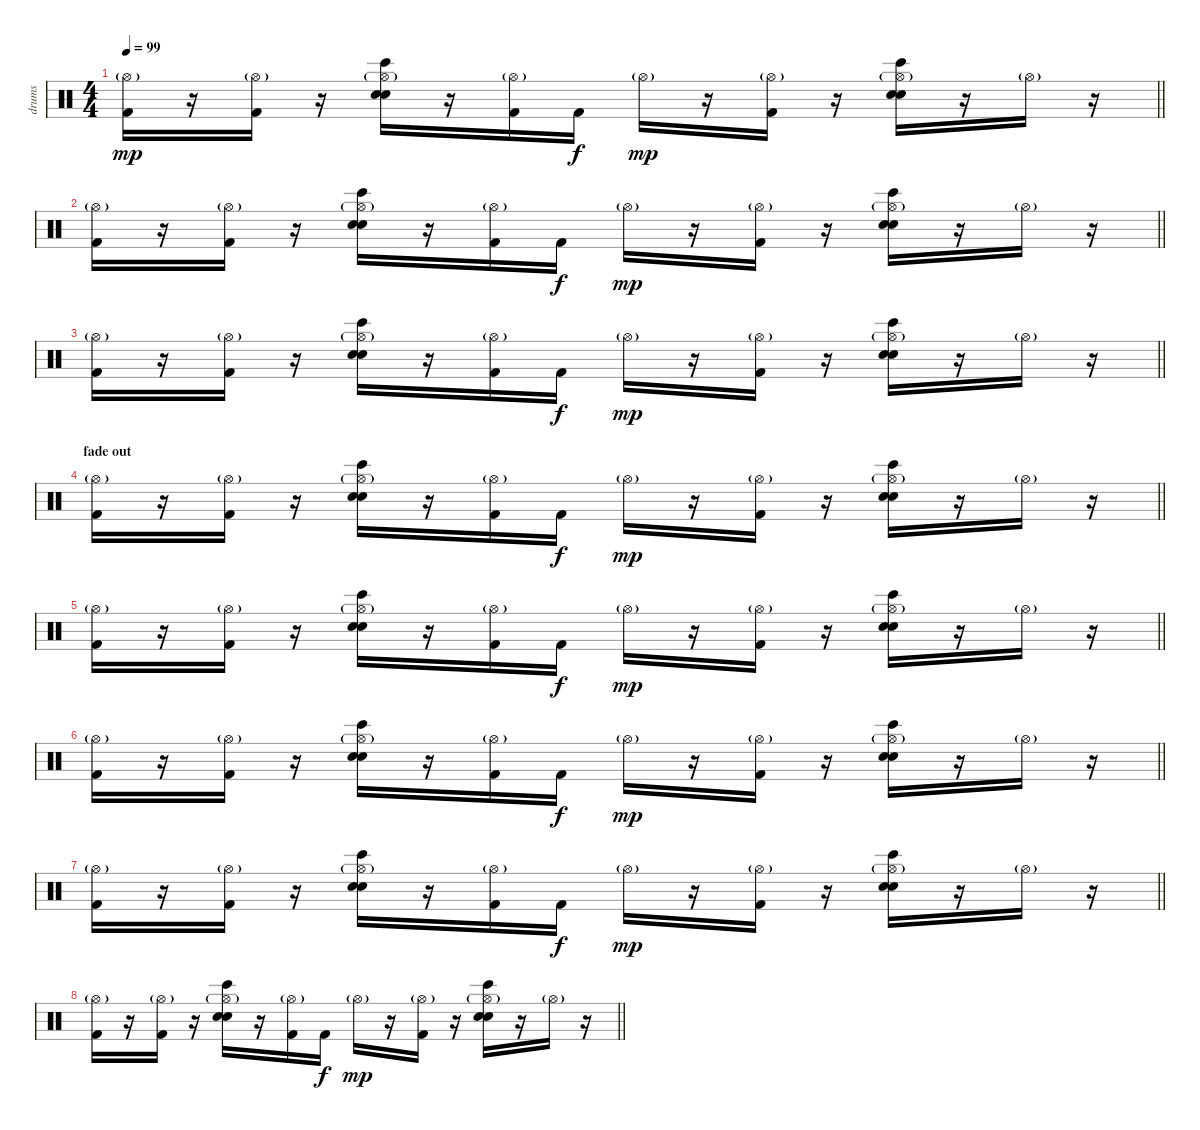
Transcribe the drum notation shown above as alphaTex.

\track ("drums" "drums") {instrument percussion}
\staff {score}
\articulation defaults
\ts (4 4)
\tempo 99
\clef neutral
\barLineRight lightlight
\ks c
("Kick (hit) 2" "Hi-Hat (open)"{g}).16{dy mp} r.16 ("Kick (hit) 2" "Hi-Hat (open)"{g}).16 r.16 ("Bongo High (hit)" "Hand Clap (hit)" "Electric Snare (hit)" "Hi-Hat (open)"{g}).16 r.16 ("Kick (hit) 2" "Hi-Hat (open)"{g}).16 "Kick (hit) 2".16{dy f} "Hi-Hat (open)"{g}.16{dy mp} r.16 ("Kick (hit) 2" "Hi-Hat (open)"{g}).16 r.16 ("Bongo High (hit)" "Hand Clap (hit)" "Electric Snare (hit)" "Hi-Hat (open)"{g}).16 r.16 "Hi-Hat (open)"{g}.16 r.16 |
\barLineRight lightlight
("Kick (hit) 2" "Hi-Hat (open)"{g}).16 r.16 ("Kick (hit) 2" "Hi-Hat (open)"{g}).16 r.16 ("Bongo High (hit)" "Hand Clap (hit)" "Electric Snare (hit)" "Hi-Hat (open)"{g}).16 r.16 ("Kick (hit) 2" "Hi-Hat (open)"{g}).16 "Kick (hit) 2".16{dy f} "Hi-Hat (open)"{g}.16{dy mp} r.16 ("Kick (hit) 2" "Hi-Hat (open)"{g}).16 r.16 ("Bongo High (hit)" "Hand Clap (hit)" "Electric Snare (hit)" "Hi-Hat (open)"{g}).16 r.16 "Hi-Hat (open)"{g}.16 r.16 |
\barLineRight lightlight
("Kick (hit) 2" "Hi-Hat (open)"{g}).16 r.16 ("Kick (hit) 2" "Hi-Hat (open)"{g}).16 r.16 ("Bongo High (hit)" "Hand Clap (hit)" "Electric Snare (hit)" "Hi-Hat (open)"{g}).16 r.16 ("Kick (hit) 2" "Hi-Hat (open)"{g}).16 "Kick (hit) 2".16{dy f} "Hi-Hat (open)"{g}.16{dy mp} r.16 ("Kick (hit) 2" "Hi-Hat (open)"{g}).16 r.16 ("Bongo High (hit)" "Hand Clap (hit)" "Electric Snare (hit)" "Hi-Hat (open)"{g}).16 r.16 "Hi-Hat (open)"{g}.16 r.16 |
\section ("" "fade out")
\barLineRight lightlight
("Kick (hit) 2" "Hi-Hat (open)"{g}).16 r.16 ("Kick (hit) 2" "Hi-Hat (open)"{g}).16 r.16 ("Bongo High (hit)" "Hand Clap (hit)" "Electric Snare (hit)" "Hi-Hat (open)"{g}).16 r.16 ("Kick (hit) 2" "Hi-Hat (open)"{g}).16 "Kick (hit) 2".16{dy f} "Hi-Hat (open)"{g}.16{dy mp} r.16 ("Kick (hit) 2" "Hi-Hat (open)"{g}).16 r.16 ("Bongo High (hit)" "Hand Clap (hit)" "Electric Snare (hit)" "Hi-Hat (open)"{g}).16 r.16 "Hi-Hat (open)"{g}.16 r.16 |
\barLineRight lightlight
("Kick (hit) 2" "Hi-Hat (open)"{g}).16 r.16 ("Kick (hit) 2" "Hi-Hat (open)"{g}).16 r.16 ("Bongo High (hit)" "Hand Clap (hit)" "Electric Snare (hit)" "Hi-Hat (open)"{g}).16 r.16 ("Kick (hit) 2" "Hi-Hat (open)"{g}).16 "Kick (hit) 2".16{dy f} "Hi-Hat (open)"{g}.16{dy mp} r.16 ("Kick (hit) 2" "Hi-Hat (open)"{g}).16 r.16 ("Bongo High (hit)" "Hand Clap (hit)" "Electric Snare (hit)" "Hi-Hat (open)"{g}).16 r.16 "Hi-Hat (open)"{g}.16 r.16 |
\barLineRight lightlight
("Kick (hit) 2" "Hi-Hat (open)"{g}).16 r.16 ("Kick (hit) 2" "Hi-Hat (open)"{g}).16 r.16 ("Bongo High (hit)" "Hand Clap (hit)" "Electric Snare (hit)" "Hi-Hat (open)"{g}).16 r.16 ("Kick (hit) 2" "Hi-Hat (open)"{g}).16 "Kick (hit) 2".16{dy f} "Hi-Hat (open)"{g}.16{dy mp} r.16 ("Kick (hit) 2" "Hi-Hat (open)"{g}).16 r.16 ("Bongo High (hit)" "Hand Clap (hit)" "Electric Snare (hit)" "Hi-Hat (open)"{g}).16 r.16 "Hi-Hat (open)"{g}.16 r.16 |
\barLineRight lightlight
("Kick (hit) 2" "Hi-Hat (open)"{g}).16 r.16 ("Kick (hit) 2" "Hi-Hat (open)"{g}).16 r.16 ("Bongo High (hit)" "Hand Clap (hit)" "Electric Snare (hit)" "Hi-Hat (open)"{g}).16 r.16 ("Kick (hit) 2" "Hi-Hat (open)"{g}).16 "Kick (hit) 2".16{dy f} "Hi-Hat (open)"{g}.16{dy mp} r.16 ("Kick (hit) 2" "Hi-Hat (open)"{g}).16 r.16 ("Bongo High (hit)" "Hand Clap (hit)" "Electric Snare (hit)" "Hi-Hat (open)"{g}).16 r.16 "Hi-Hat (open)"{g}.16 r.16 |
\barLineRight lightlight
("Kick (hit) 2" "Hi-Hat (open)"{g}).16 r.16 ("Kick (hit) 2" "Hi-Hat (open)"{g}).16 r.16 ("Bongo High (hit)" "Hand Clap (hit)" "Electric Snare (hit)" "Hi-Hat (open)"{g}).16 r.16 ("Kick (hit) 2" "Hi-Hat (open)"{g}).16 "Kick (hit) 2".16{dy f} "Hi-Hat (open)"{g}.16{dy mp} r.16 ("Kick (hit) 2" "Hi-Hat (open)"{g}).16 r.16 ("Bongo High (hit)" "Hand Clap (hit)" "Electric Snare (hit)" "Hi-Hat (open)"{g}).16 r.16 "Hi-Hat (open)"{g}.16 r.16
